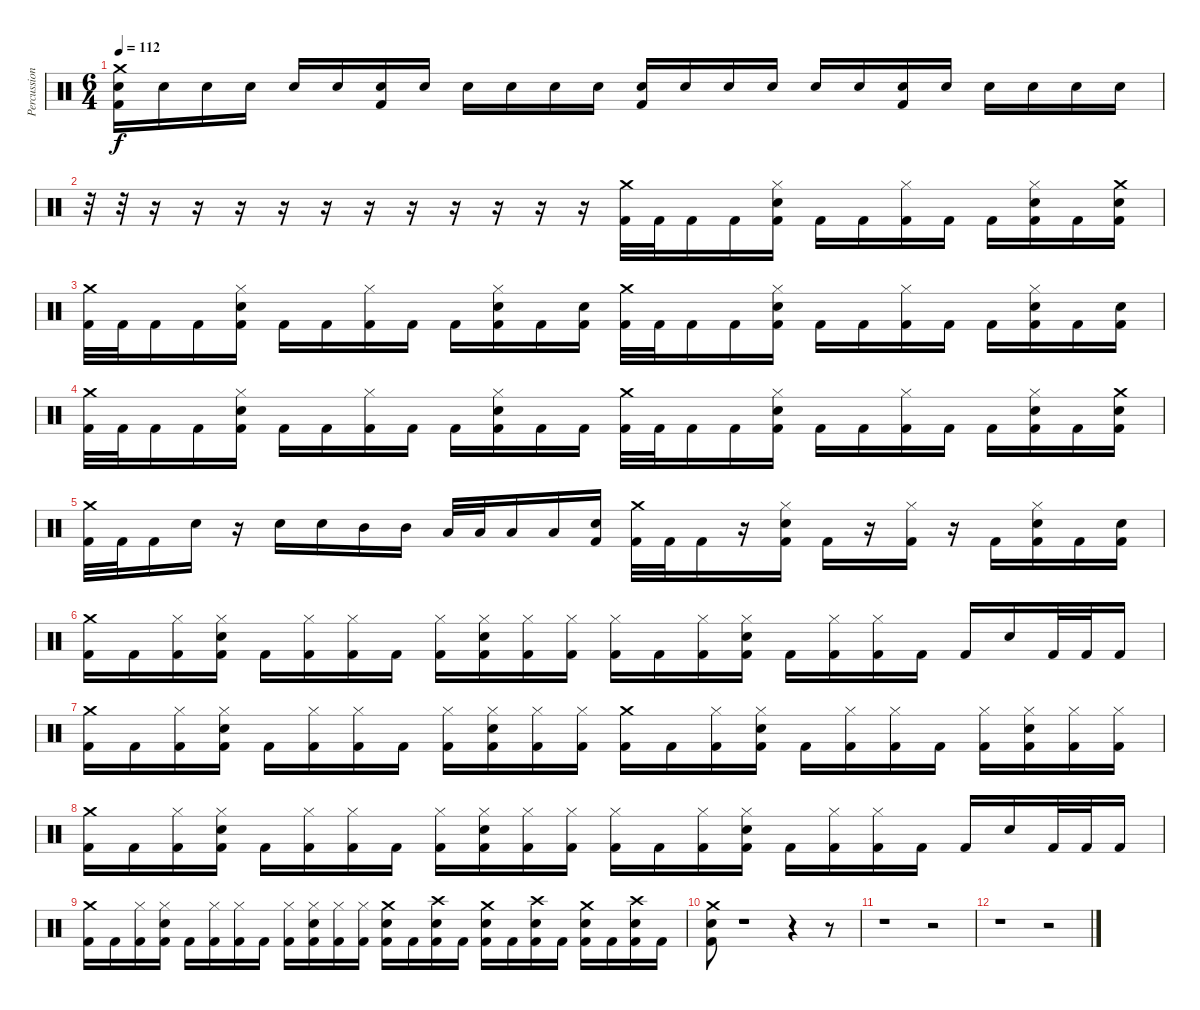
\track ("Percussion" "Percussion") {instrument percussion}
\staff {score}
\articulation defaults
\ts (6 4)
\tempo 112
\clef neutral
\ks c
("Crash medium (hit)" "Snare (hit) 2" "Kick (hit) 2").16{dy f volume 8} "Snare (hit) 2".16 "Snare (hit) 2".16 "Snare (hit) 2".16 "Snare (hit) 2".16 "Snare (hit) 2".16 ("Snare (hit) 2" "Kick (hit) 2").16 "Snare (hit) 2".16 "Snare (hit) 2".16 "Snare (hit) 2".16 "Snare (hit) 2".16 "Snare (hit) 2".16 ("Snare (hit) 2" "Kick (hit) 2").16{volume 8} "Snare (hit) 2".16 "Snare (hit) 2".16 "Snare (hit) 2".16 "Snare (hit) 2".16 "Snare (hit) 2".16 ("Snare (hit) 2" "Kick (hit) 2").16 "Snare (hit) 2".16 "Snare (hit) 2".16 "Snare (hit) 2".16 "Snare (hit) 2".16 "Snare (hit) 2".16 |
r.32{volume 12} r.32 r.16 r.16 r.16 r.16 r.16 r.16 r.16 r.16 r.16 r.16 r.16 ("Crash medium (hit)" "Kick (hit) 2").32 "Kick (hit) 2".32 "Kick (hit) 2".16 "Kick (hit) 2".16 ("Hi-Hat (closed)" "Snare (hit) 2" "Kick (hit) 2").16 "Kick (hit) 2".16 "Kick (hit) 2".16 ("Hi-Hat (closed)" "Kick (hit) 2").16 "Kick (hit) 2".16 "Kick (hit) 2".16 ("Hi-Hat (closed)" "Snare (hit) 2" "Kick (hit) 2").16 "Kick (hit) 2".16 ("Crash medium (hit)" "Snare (hit) 2" "Kick (hit) 2").16 |
("Crash medium (hit)" "Kick (hit) 2").32 "Kick (hit) 2".32 "Kick (hit) 2".16 "Kick (hit) 2".16 ("Hi-Hat (closed)" "Snare (hit) 2" "Kick (hit) 2").16 "Kick (hit) 2".16 "Kick (hit) 2".16 ("Hi-Hat (closed)" "Kick (hit) 2").16 "Kick (hit) 2".16 "Kick (hit) 2".16 ("Hi-Hat (closed)" "Snare (hit) 2" "Kick (hit) 2").16 "Kick (hit) 2".16 ("Snare (hit) 2" "Kick (hit) 2").16 ("Crash medium (hit)" "Kick (hit) 2").32 "Kick (hit) 2".32 "Kick (hit) 2".16 "Kick (hit) 2".16 ("Hi-Hat (closed)" "Snare (hit) 2" "Kick (hit) 2").16 "Kick (hit) 2".16 "Kick (hit) 2".16 ("Hi-Hat (closed)" "Kick (hit) 2").16 "Kick (hit) 2".16 "Kick (hit) 2".16 ("Hi-Hat (closed)" "Snare (hit) 2" "Kick (hit) 2").16 "Kick (hit) 2".16 ("Snare (hit) 2" "Kick (hit) 2").16 |
("Crash medium (hit)" "Kick (hit) 2").32 "Kick (hit) 2".32 "Kick (hit) 2".16 "Kick (hit) 2".16 ("Hi-Hat (closed)" "Snare (hit) 2" "Kick (hit) 2").16 "Kick (hit) 2".16 "Kick (hit) 2".16 ("Hi-Hat (closed)" "Kick (hit) 2").16 "Kick (hit) 2".16 "Kick (hit) 2".16 ("Hi-Hat (closed)" "Snare (hit) 2" "Kick (hit) 2").16 "Kick (hit) 2".16 "Kick (hit) 2".16 ("Crash medium (hit)" "Kick (hit) 2").32 "Kick (hit) 2".32 "Kick (hit) 2".16 "Kick (hit) 2".16 ("Hi-Hat (closed)" "Snare (hit) 2" "Kick (hit) 2").16 "Kick (hit) 2".16 "Kick (hit) 2".16 ("Hi-Hat (closed)" "Kick (hit) 2").16 "Kick (hit) 2".16 "Kick (hit) 2".16 ("Hi-Hat (closed)" "Snare (hit) 2" "Kick (hit) 2").16 "Kick (hit) 2".16 ("Crash medium (hit)" "Snare (hit) 2" "Kick (hit) 2").16 |
("Crash medium (hit)" "Kick (hit) 2").32 "Kick (hit) 2".32 "Kick (hit) 2".16 "Snare (hit) 2".16 r.16 "Snare (hit) 2".16 "Snare (hit) 2".16 "Mid Tom (hit)".16 "Mid Tom (hit)".16 "Low Tom (hit)".32 "Low Tom (hit)".32 "Low Tom (hit)".16 "Low Tom (hit)".16 ("Snare (hit) 2" "Kick (hit) 2").16 ("Crash medium (hit)" "Kick (hit) 2").32 "Kick (hit) 2".32 "Kick (hit) 2".16 r.16 ("Hi-Hat (closed)" "Snare (hit) 2" "Kick (hit) 2").16 "Kick (hit) 2".16 r.16 ("Hi-Hat (closed)" "Kick (hit) 2").16 r.16 "Kick (hit) 2".16 ("Hi-Hat (closed)" "Snare (hit) 2" "Kick (hit) 2").16 "Kick (hit) 2".16 ("Snare (hit) 2" "Kick (hit) 2").16 |
("Crash medium (hit)" "Kick (hit) 2").16 "Kick (hit) 2".16 ("Hi-Hat (closed)" "Kick (hit) 2").16 ("Hi-Hat (closed)" "Snare (hit) 2" "Kick (hit) 2").16 "Kick (hit) 2".16 ("Hi-Hat (closed)" "Kick (hit) 2").16 ("Hi-Hat (closed)" "Kick (hit) 2").16 "Kick (hit) 2".16 ("Hi-Hat (closed)" "Kick (hit) 2").16 ("Hi-Hat (closed)" "Snare (hit) 2" "Kick (hit) 2").16 ("Hi-Hat (closed)" "Kick (hit) 2").16 ("Hi-Hat (closed)" "Kick (hit) 2").16 ("Hi-Hat (closed)" "Kick (hit) 2").16 "Kick (hit) 2".16 ("Hi-Hat (closed)" "Kick (hit) 2").16 ("Hi-Hat (closed)" "Snare (hit) 2" "Kick (hit) 2").16 "Kick (hit) 2".16 ("Hi-Hat (closed)" "Kick (hit) 2").16 ("Hi-Hat (closed)" "Kick (hit) 2").16 "Kick (hit) 2".16 "Kick (hit) 2".16 "Snare (hit) 2".16 "Kick (hit) 2".32 "Kick (hit) 2".32 "Kick (hit) 2".16 |
("Crash medium (hit)" "Kick (hit) 2").16 "Kick (hit) 2".16 ("Hi-Hat (closed)" "Kick (hit) 2").16 ("Hi-Hat (closed)" "Snare (hit) 2" "Kick (hit) 2").16 "Kick (hit) 2".16 ("Hi-Hat (closed)" "Kick (hit) 2").16 ("Hi-Hat (closed)" "Kick (hit) 2").16 "Kick (hit) 2".16 ("Hi-Hat (closed)" "Kick (hit) 2").16 ("Hi-Hat (closed)" "Snare (hit) 2" "Kick (hit) 2").16 ("Hi-Hat (closed)" "Kick (hit) 2").16 ("Hi-Hat (closed)" "Kick (hit) 2").16 ("Crash medium (hit)" "Kick (hit) 2").16 "Kick (hit) 2".16 ("Hi-Hat (closed)" "Kick (hit) 2").16 ("Hi-Hat (closed)" "Snare (hit) 2" "Kick (hit) 2").16 "Kick (hit) 2".16 ("Hi-Hat (closed)" "Kick (hit) 2").16 ("Hi-Hat (closed)" "Kick (hit) 2").16 "Kick (hit) 2".16 ("Hi-Hat (closed)" "Kick (hit) 2").16 ("Hi-Hat (closed)" "Snare (hit) 2" "Kick (hit) 2").16 ("Hi-Hat (closed)" "Kick (hit) 2").16 ("Hi-Hat (closed)" "Kick (hit) 2").16 |
("Crash medium (hit)" "Kick (hit) 2").16 "Kick (hit) 2".16 ("Hi-Hat (closed)" "Kick (hit) 2").16 ("Hi-Hat (closed)" "Snare (hit) 2" "Kick (hit) 2").16 "Kick (hit) 2".16 ("Hi-Hat (closed)" "Kick (hit) 2").16 ("Hi-Hat (closed)" "Kick (hit) 2").16 "Kick (hit) 2".16 ("Hi-Hat (closed)" "Kick (hit) 2").16 ("Hi-Hat (closed)" "Snare (hit) 2" "Kick (hit) 2").16 ("Hi-Hat (closed)" "Kick (hit) 2").16 ("Hi-Hat (closed)" "Kick (hit) 2").16 ("Hi-Hat (closed)" "Kick (hit) 2").16 "Kick (hit) 2".16 ("Hi-Hat (closed)" "Kick (hit) 2").16 ("Hi-Hat (closed)" "Snare (hit) 2" "Kick (hit) 2").16 "Kick (hit) 2".16 ("Hi-Hat (closed)" "Kick (hit) 2").16 ("Hi-Hat (closed)" "Kick (hit) 2").16 "Kick (hit) 2".16 "Kick (hit) 2".16 "Snare (hit) 2".16 "Kick (hit) 2".32 "Kick (hit) 2".32 "Kick (hit) 2".16 |
("Crash medium (hit)" "Kick (hit) 2").16 "Kick (hit) 2".16 ("Hi-Hat (closed)" "Kick (hit) 2").16 ("Hi-Hat (closed)" "Snare (hit) 2" "Kick (hit) 2").16 "Kick (hit) 2".16 ("Hi-Hat (closed)" "Kick (hit) 2").16 ("Hi-Hat (closed)" "Kick (hit) 2").16 "Kick (hit) 2".16 ("Hi-Hat (closed)" "Kick (hit) 2").16 ("Hi-Hat (closed)" "Snare (hit) 2" "Kick (hit) 2").16 ("Hi-Hat (closed)" "Kick (hit) 2").16 ("Hi-Hat (closed)" "Kick (hit) 2").16 ("Crash medium (hit)" "Snare (hit) 2" "Kick (hit) 2").16 "Kick (hit) 2".16 ("Crash high (hit)" "Snare (hit) 2" "Kick (hit) 2").16 "Kick (hit) 2".16 ("Crash medium (hit)" "Snare (hit) 2" "Kick (hit) 2").16 "Kick (hit) 2".16 ("Crash high (hit)" "Snare (hit) 2" "Kick (hit) 2").16 "Kick (hit) 2".16 ("Crash medium (hit)" "Snare (hit) 2" "Kick (hit) 2").16 "Kick (hit) 2".16 ("Crash high (hit)" "Snare (hit) 2" "Kick (hit) 2").16 "Kick (hit) 2".16 |
("Crash medium (hit)" "Snare (hit) 2" "Kick (hit) 2").8 r.1 r.4 r.8 |
r.1 r.2 |
r.1 r.2
